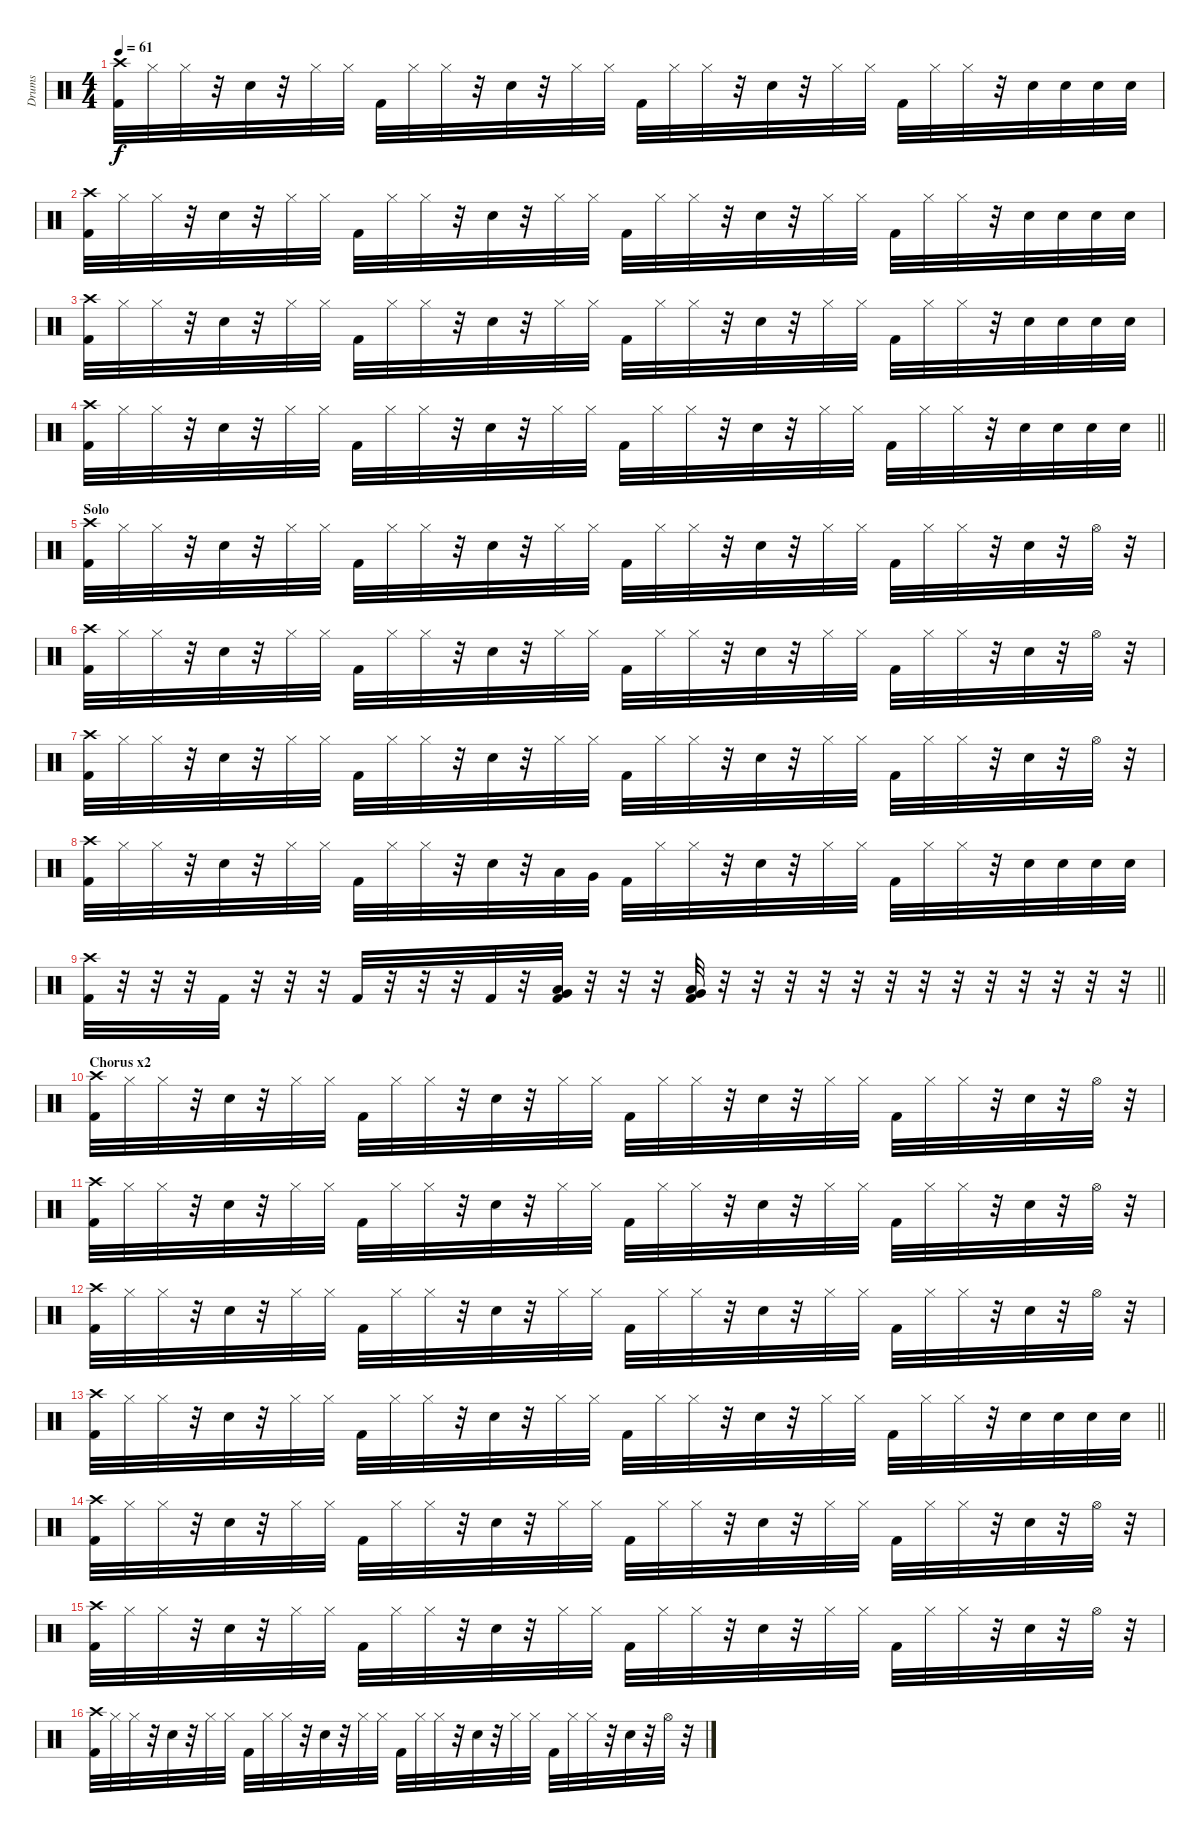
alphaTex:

\track ("Drums" "Drums") {instrument percussion}
\staff {score}
\articulation defaults
\ts (4 4)
\tempo 61
\clef neutral
\ks c
("Kick (hit) 2" "Crash high (hit)").32{dy f} "Hi-Hat (closed)".32 "Hi-Hat (closed)".32 r.32 "Snare (hit) 2".32 r.32 "Hi-Hat (closed)".32 "Hi-Hat (closed)".32 "Kick (hit) 2".32 "Hi-Hat (closed)".32 "Hi-Hat (closed)".32 r.32 "Snare (hit) 2".32 r.32 "Hi-Hat (closed)".32 "Hi-Hat (closed)".32 "Kick (hit) 2".32 "Hi-Hat (closed)".32 "Hi-Hat (closed)".32 r.32 "Snare (hit) 2".32 r.32 "Hi-Hat (closed)".32 "Hi-Hat (closed)".32 "Kick (hit) 2".32 "Hi-Hat (closed)".32 "Hi-Hat (closed)".32 r.32 "Snare (hit) 2".32 "Snare (hit) 2".32 "Snare (hit) 2".32 "Snare (hit) 2".32 |
("Kick (hit) 2" "Crash high (hit)").32 "Hi-Hat (closed)".32 "Hi-Hat (closed)".32 r.32 "Snare (hit) 2".32 r.32 "Hi-Hat (closed)".32 "Hi-Hat (closed)".32 "Kick (hit) 2".32 "Hi-Hat (closed)".32 "Hi-Hat (closed)".32 r.32 "Snare (hit) 2".32 r.32 "Hi-Hat (closed)".32 "Hi-Hat (closed)".32 "Kick (hit) 2".32 "Hi-Hat (closed)".32 "Hi-Hat (closed)".32 r.32 "Snare (hit) 2".32 r.32 "Hi-Hat (closed)".32 "Hi-Hat (closed)".32 "Kick (hit) 2".32 "Hi-Hat (closed)".32 "Hi-Hat (closed)".32 r.32 "Snare (hit) 2".32 "Snare (hit) 2".32 "Snare (hit) 2".32 "Snare (hit) 2".32 |
("Kick (hit) 2" "Crash high (hit)").32 "Hi-Hat (closed)".32 "Hi-Hat (closed)".32 r.32 "Snare (hit) 2".32 r.32 "Hi-Hat (closed)".32 "Hi-Hat (closed)".32 "Kick (hit) 2".32 "Hi-Hat (closed)".32 "Hi-Hat (closed)".32 r.32 "Snare (hit) 2".32 r.32 "Hi-Hat (closed)".32 "Hi-Hat (closed)".32 "Kick (hit) 2".32 "Hi-Hat (closed)".32 "Hi-Hat (closed)".32 r.32 "Snare (hit) 2".32 r.32 "Hi-Hat (closed)".32 "Hi-Hat (closed)".32 "Kick (hit) 2".32 "Hi-Hat (closed)".32 "Hi-Hat (closed)".32 r.32 "Snare (hit) 2".32 "Snare (hit) 2".32 "Snare (hit) 2".32 "Snare (hit) 2".32 |
\barLineRight lightlight
("Kick (hit) 2" "Crash high (hit)").32 "Hi-Hat (closed)".32 "Hi-Hat (closed)".32 r.32 "Snare (hit) 2".32 r.32 "Hi-Hat (closed)".32 "Hi-Hat (closed)".32 "Kick (hit) 2".32 "Hi-Hat (closed)".32 "Hi-Hat (closed)".32 r.32 "Snare (hit) 2".32 r.32 "Hi-Hat (closed)".32 "Hi-Hat (closed)".32 "Kick (hit) 2".32 "Hi-Hat (closed)".32 "Hi-Hat (closed)".32 r.32 "Snare (hit) 2".32 r.32 "Hi-Hat (closed)".32 "Hi-Hat (closed)".32 "Kick (hit) 2".32 "Hi-Hat (closed)".32 "Hi-Hat (closed)".32 r.32 "Snare (hit) 2".32 "Snare (hit) 2".32 "Snare (hit) 2".32 "Snare (hit) 2".32 |
\section ("" "Solo")
("Kick (hit) 2" "Crash high (hit)").32 "Hi-Hat (closed)".32 "Hi-Hat (closed)".32 r.32 "Snare (hit) 2".32 r.32 "Hi-Hat (closed)".32 "Hi-Hat (closed)".32 "Kick (hit) 2".32 "Hi-Hat (closed)".32 "Hi-Hat (closed)".32 r.32 "Snare (hit) 2".32 r.32 "Hi-Hat (closed)".32 "Hi-Hat (closed)".32 "Kick (hit) 2".32 "Hi-Hat (closed)".32 "Hi-Hat (closed)".32 r.32 "Snare (hit) 2".32 r.32 "Hi-Hat (closed)".32 "Hi-Hat (closed)".32 "Kick (hit) 2".32 "Hi-Hat (closed)".32 "Hi-Hat (closed)".32 r.32 "Snare (hit) 2".32 r.32 "Hi-Hat (open)".32 r.32 |
("Kick (hit) 2" "Crash high (hit)").32 "Hi-Hat (closed)".32 "Hi-Hat (closed)".32 r.32 "Snare (hit) 2".32 r.32 "Hi-Hat (closed)".32 "Hi-Hat (closed)".32 "Kick (hit) 2".32 "Hi-Hat (closed)".32 "Hi-Hat (closed)".32 r.32 "Snare (hit) 2".32 r.32 "Hi-Hat (closed)".32 "Hi-Hat (closed)".32 "Kick (hit) 2".32 "Hi-Hat (closed)".32 "Hi-Hat (closed)".32 r.32 "Snare (hit) 2".32 r.32 "Hi-Hat (closed)".32 "Hi-Hat (closed)".32 "Kick (hit) 2".32 "Hi-Hat (closed)".32 "Hi-Hat (closed)".32 r.32 "Snare (hit) 2".32 r.32 "Hi-Hat (open)".32 r.32 |
("Kick (hit) 2" "Crash high (hit)").32 "Hi-Hat (closed)".32 "Hi-Hat (closed)".32 r.32 "Snare (hit) 2".32 r.32 "Hi-Hat (closed)".32 "Hi-Hat (closed)".32 "Kick (hit) 2".32 "Hi-Hat (closed)".32 "Hi-Hat (closed)".32 r.32 "Snare (hit) 2".32 r.32 "Hi-Hat (closed)".32 "Hi-Hat (closed)".32 "Kick (hit) 2".32 "Hi-Hat (closed)".32 "Hi-Hat (closed)".32 r.32 "Snare (hit) 2".32 r.32 "Hi-Hat (closed)".32 "Hi-Hat (closed)".32 "Kick (hit) 2".32 "Hi-Hat (closed)".32 "Hi-Hat (closed)".32 r.32 "Snare (hit) 2".32 r.32 "Hi-Hat (open)".32 r.32 |
("Kick (hit) 2" "Crash high (hit)").32 "Hi-Hat (closed)".32 "Hi-Hat (closed)".32 r.32 "Snare (hit) 2".32 r.32 "Hi-Hat (closed)".32 "Hi-Hat (closed)".32 "Kick (hit) 2".32 "Hi-Hat (closed)".32 "Hi-Hat (closed)".32 r.32 "Snare (hit) 2".32 r.32 "Low Tom (hit)".32 "Very Low Tom (hit)".32 "Kick (hit) 2".32 "Hi-Hat (closed)".32 "Hi-Hat (closed)".32 r.32 "Snare (hit) 2".32 r.32 "Hi-Hat (closed)".32 "Hi-Hat (closed)".32 "Kick (hit) 2".32 "Hi-Hat (closed)".32 "Hi-Hat (closed)".32 r.32 "Snare (hit) 2".32 "Snare (hit) 2".32 "Snare (hit) 2".32 "Snare (hit) 2".32 |
\barLineRight lightlight
("Crash high (hit)" "Kick (hit) 2").32 r.32 r.32 r.32 "Kick (hit) 2".32 r.32 r.32 r.32 "Kick (hit) 2".32 r.32 r.32 r.32 "Kick (hit) 2".32 r.32 ("Very Low Tom (hit)" "Low Tom (hit)" "Kick (hit) 2").32 r.32 r.32 r.32 ("Very Low Tom (hit)" "Low Tom (hit)" "Kick (hit) 2").32 r.32 r.32 r.32 r.32 r.32 r.32 r.32 r.32 r.32 r.32 r.32 r.32 r.32 |
\section ("" "Chorus x2")
("Kick (hit) 2" "Crash high (hit)").32 "Hi-Hat (closed)".32 "Hi-Hat (closed)".32 r.32 "Snare (hit) 2".32 r.32 "Hi-Hat (closed)".32 "Hi-Hat (closed)".32 "Kick (hit) 2".32 "Hi-Hat (closed)".32 "Hi-Hat (closed)".32 r.32 "Snare (hit) 2".32 r.32 "Hi-Hat (closed)".32 "Hi-Hat (closed)".32 "Kick (hit) 2".32 "Hi-Hat (closed)".32 "Hi-Hat (closed)".32 r.32 "Snare (hit) 2".32 r.32 "Hi-Hat (closed)".32 "Hi-Hat (closed)".32 "Kick (hit) 2".32 "Hi-Hat (closed)".32 "Hi-Hat (closed)".32 r.32 "Snare (hit) 2".32 r.32 "Hi-Hat (open)".32 r.32 |
("Kick (hit) 2" "Crash high (hit)").32 "Hi-Hat (closed)".32 "Hi-Hat (closed)".32 r.32 "Snare (hit) 2".32 r.32 "Hi-Hat (closed)".32 "Hi-Hat (closed)".32 "Kick (hit) 2".32 "Hi-Hat (closed)".32 "Hi-Hat (closed)".32 r.32 "Snare (hit) 2".32 r.32 "Hi-Hat (closed)".32 "Hi-Hat (closed)".32 "Kick (hit) 2".32 "Hi-Hat (closed)".32 "Hi-Hat (closed)".32 r.32 "Snare (hit) 2".32 r.32 "Hi-Hat (closed)".32 "Hi-Hat (closed)".32 "Kick (hit) 2".32 "Hi-Hat (closed)".32 "Hi-Hat (closed)".32 r.32 "Snare (hit) 2".32 r.32 "Hi-Hat (open)".32 r.32 |
("Kick (hit) 2" "Crash high (hit)").32 "Hi-Hat (closed)".32 "Hi-Hat (closed)".32 r.32 "Snare (hit) 2".32 r.32 "Hi-Hat (closed)".32 "Hi-Hat (closed)".32 "Kick (hit) 2".32 "Hi-Hat (closed)".32 "Hi-Hat (closed)".32 r.32 "Snare (hit) 2".32 r.32 "Hi-Hat (closed)".32 "Hi-Hat (closed)".32 "Kick (hit) 2".32 "Hi-Hat (closed)".32 "Hi-Hat (closed)".32 r.32 "Snare (hit) 2".32 r.32 "Hi-Hat (closed)".32 "Hi-Hat (closed)".32 "Kick (hit) 2".32 "Hi-Hat (closed)".32 "Hi-Hat (closed)".32 r.32 "Snare (hit) 2".32 r.32 "Hi-Hat (open)".32 r.32 |
\barLineRight lightlight
("Kick (hit) 2" "Crash high (hit)").32 "Hi-Hat (closed)".32 "Hi-Hat (closed)".32 r.32 "Snare (hit) 2".32 r.32 "Hi-Hat (closed)".32 "Hi-Hat (closed)".32 "Kick (hit) 2".32 "Hi-Hat (closed)".32 "Hi-Hat (closed)".32 r.32 "Snare (hit) 2".32 r.32 "Hi-Hat (closed)".32 "Hi-Hat (closed)".32 "Kick (hit) 2".32 "Hi-Hat (closed)".32 "Hi-Hat (closed)".32 r.32 "Snare (hit) 2".32 r.32 "Hi-Hat (closed)".32 "Hi-Hat (closed)".32 "Kick (hit) 2".32 "Hi-Hat (closed)".32 "Hi-Hat (closed)".32 r.32 "Snare (hit) 2".32 "Snare (hit) 2".32 "Snare (hit) 2".32 "Snare (hit) 2".32 |
("Kick (hit) 2" "Crash high (hit)").32 "Hi-Hat (closed)".32 "Hi-Hat (closed)".32 r.32 "Snare (hit) 2".32 r.32 "Hi-Hat (closed)".32 "Hi-Hat (closed)".32 "Kick (hit) 2".32 "Hi-Hat (closed)".32 "Hi-Hat (closed)".32 r.32 "Snare (hit) 2".32 r.32 "Hi-Hat (closed)".32 "Hi-Hat (closed)".32 "Kick (hit) 2".32 "Hi-Hat (closed)".32 "Hi-Hat (closed)".32 r.32 "Snare (hit) 2".32 r.32 "Hi-Hat (closed)".32 "Hi-Hat (closed)".32 "Kick (hit) 2".32 "Hi-Hat (closed)".32 "Hi-Hat (closed)".32 r.32 "Snare (hit) 2".32 r.32 "Hi-Hat (open)".32 r.32 |
("Kick (hit) 2" "Crash high (hit)").32 "Hi-Hat (closed)".32 "Hi-Hat (closed)".32 r.32 "Snare (hit) 2".32 r.32 "Hi-Hat (closed)".32 "Hi-Hat (closed)".32 "Kick (hit) 2".32 "Hi-Hat (closed)".32 "Hi-Hat (closed)".32 r.32 "Snare (hit) 2".32 r.32 "Hi-Hat (closed)".32 "Hi-Hat (closed)".32 "Kick (hit) 2".32 "Hi-Hat (closed)".32 "Hi-Hat (closed)".32 r.32 "Snare (hit) 2".32 r.32 "Hi-Hat (closed)".32 "Hi-Hat (closed)".32 "Kick (hit) 2".32 "Hi-Hat (closed)".32 "Hi-Hat (closed)".32 r.32 "Snare (hit) 2".32 r.32 "Hi-Hat (open)".32 r.32 |
("Kick (hit) 2" "Crash high (hit)").32 "Hi-Hat (closed)".32 "Hi-Hat (closed)".32 r.32 "Snare (hit) 2".32 r.32 "Hi-Hat (closed)".32 "Hi-Hat (closed)".32 "Kick (hit) 2".32 "Hi-Hat (closed)".32 "Hi-Hat (closed)".32 r.32 "Snare (hit) 2".32 r.32 "Hi-Hat (closed)".32 "Hi-Hat (closed)".32 "Kick (hit) 2".32 "Hi-Hat (closed)".32 "Hi-Hat (closed)".32 r.32 "Snare (hit) 2".32 r.32 "Hi-Hat (closed)".32 "Hi-Hat (closed)".32 "Kick (hit) 2".32 "Hi-Hat (closed)".32 "Hi-Hat (closed)".32 r.32 "Snare (hit) 2".32 r.32 "Hi-Hat (open)".32 r.32
